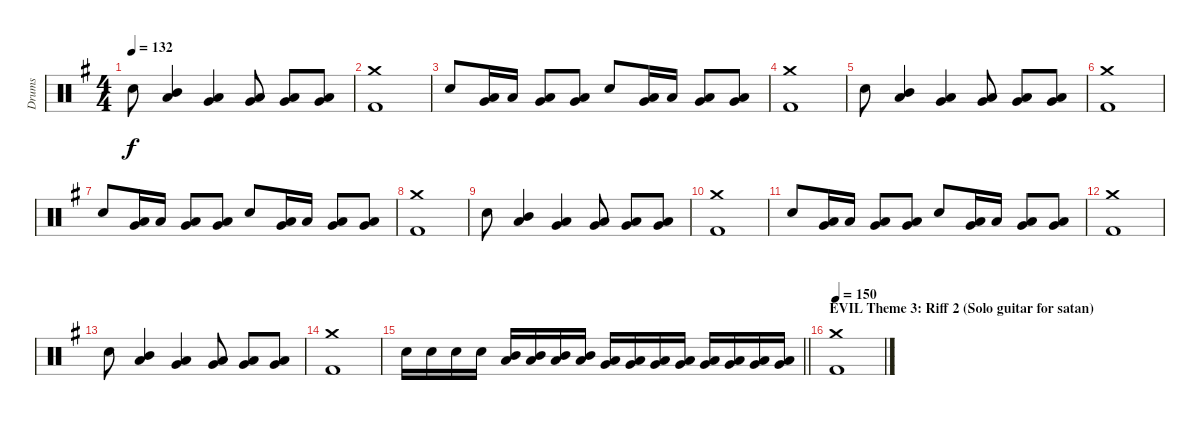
\track ("Drums" "Drums") {instrument percussion}
\staff {score}
\articulation defaults
\ts (4 4)
\tempo 132
\clef neutral
\ks g "Snare (hit) 2".8{dy f}
("Mid Tom (hit)" "Low Tom (hit)").4 ("Low Tom (hit)" "Very Low Tom (hit)").4 ("Very Low Tom (hit)" "Low Floor Tom (hit)").8 ("Very Low Tom (hit)" "Low Floor Tom (hit)").8 ("Very Low Tom (hit)" "Low Floor Tom (hit)").8 |
("Crash medium (hit)" "Kick (hit) 2").1 |
"Snare (hit) 2".8 ("Low Tom (hit)" "Very Low Tom (hit)").16 "Low Tom (hit)".16 ("Low Tom (hit)" "Very Low Tom (hit)").8 ("Low Tom (hit)" "Very Low Tom (hit)").8 "Snare (hit) 2".8 ("Low Tom (hit)" "Very Low Tom (hit)").16 "Low Tom (hit)".16 ("Low Tom (hit)" "Very Low Tom (hit)").8 ("Low Tom (hit)" "Very Low Tom (hit)").8 |
("Crash medium (hit)" "Kick (hit) 2").1 |
"Snare (hit) 2".8 ("Mid Tom (hit)" "Low Tom (hit)").4 ("Low Tom (hit)" "Very Low Tom (hit)").4 ("Very Low Tom (hit)" "Low Floor Tom (hit)").8 ("Very Low Tom (hit)" "Low Floor Tom (hit)").8 ("Very Low Tom (hit)" "Low Floor Tom (hit)").8 |
("Crash medium (hit)" "Kick (hit) 2").1 |
"Snare (hit) 2".8 ("Low Tom (hit)" "Very Low Tom (hit)").16 "Low Tom (hit)".16 ("Low Tom (hit)" "Very Low Tom (hit)").8 ("Low Tom (hit)" "Very Low Tom (hit)").8 "Snare (hit) 2".8 ("Low Tom (hit)" "Very Low Tom (hit)").16 "Low Tom (hit)".16 ("Low Tom (hit)" "Very Low Tom (hit)").8 ("Low Tom (hit)" "Very Low Tom (hit)").8 |
("Crash medium (hit)" "Kick (hit) 2").1 |
"Snare (hit) 2".8 ("Mid Tom (hit)" "Low Tom (hit)").4 ("Low Tom (hit)" "Very Low Tom (hit)").4 ("Very Low Tom (hit)" "Low Floor Tom (hit)").8 ("Very Low Tom (hit)" "Low Floor Tom (hit)").8 ("Very Low Tom (hit)" "Low Floor Tom (hit)").8 |
("Crash medium (hit)" "Kick (hit) 2").1 |
"Snare (hit) 2".8 ("Low Tom (hit)" "Very Low Tom (hit)").16 "Low Tom (hit)".16 ("Low Tom (hit)" "Very Low Tom (hit)").8 ("Low Tom (hit)" "Very Low Tom (hit)").8 "Snare (hit) 2".8 ("Low Tom (hit)" "Very Low Tom (hit)").16 "Low Tom (hit)".16 ("Low Tom (hit)" "Very Low Tom (hit)").8 ("Low Tom (hit)" "Very Low Tom (hit)").8 |
("Crash medium (hit)" "Kick (hit) 2").1 |
"Snare (hit) 2".8 ("Mid Tom (hit)" "Low Tom (hit)").4 ("Low Tom (hit)" "Very Low Tom (hit)").4 ("Very Low Tom (hit)" "Low Floor Tom (hit)").8 ("Very Low Tom (hit)" "Low Floor Tom (hit)").8 ("Very Low Tom (hit)" "Low Floor Tom (hit)").8 |
("Crash medium (hit)" "Kick (hit) 2").1 |
\barLineRight lightlight "Snare (hit) 2".16{volume 8 balance 0} "Snare (hit) 2".16 "Snare (hit) 2".16{volume 11} "Snare (hit) 2".16
("Mid Tom (hit)" "Low Tom (hit)").16{volume 13} ("Mid Tom (hit)" "Low Tom (hit)").16 ("Mid Tom (hit)" "Low Tom (hit)").16{volume 13} ("Mid Tom (hit)" "Low Tom (hit)").16 ("Low Tom (hit)" "Very Low Tom (hit)").16{balance 10} ("Low Tom (hit)" "Very Low Tom (hit)").16 ("Low Tom (hit)" "Very Low Tom (hit)").16{balance 12} ("Low Tom (hit)" "Very Low Tom (hit)").16 ("Very Low Tom (hit)" "Low Floor Tom (hit)").16{balance 16} ("Very Low Tom (hit)" "Low Floor Tom (hit)").16 ("Very Low Tom (hit)" "Low Floor Tom (hit)").16{balance 8} ("Very Low Tom (hit)" "Low Floor Tom (hit)").16 |
\section ("" "EVIL Theme 3: Riff 2 (Solo guitar for satan)")
\tempo 150
("Crash medium (hit)" "Kick (hit) 2").1
